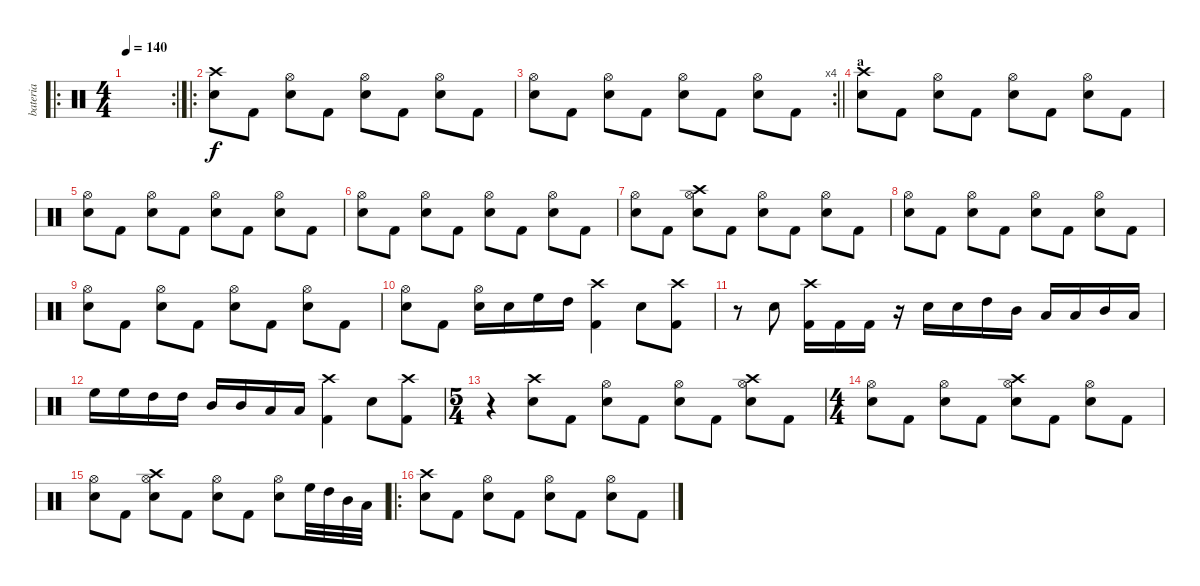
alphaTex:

\track ("bateria" "bateria") {instrument percussion}
\staff {score}
\articulation defaults
\ro
\rc 2
\ts (4 4)
\tempo 140
\clef neutral
\ks c
|
\ro
("Electric Snare (hit)" "Crash high (hit)").8 "Kick (hit) 2".8 ("Electric Snare (hit)" "Hi-Hat (open)").8 "Kick (hit) 2".8 ("Electric Snare (hit)" "Hi-Hat (open)").8 "Kick (hit) 2".8 ("Electric Snare (hit)" "Hi-Hat (open)").8 "Kick (hit) 2".8 |
\rc 4
\barLineRight lightlight
("Electric Snare (hit)" "Hi-Hat (open)").8 "Kick (hit) 2".8 ("Electric Snare (hit)" "Hi-Hat (open)").8 "Kick (hit) 2".8 ("Electric Snare (hit)" "Hi-Hat (open)").8 "Kick (hit) 2".8 ("Electric Snare (hit)" "Hi-Hat (open)").8 "Kick (hit) 2".8 |
\section ("" "a")
("Electric Snare (hit)" "Crash high (hit)").8 "Kick (hit) 2".8 ("Electric Snare (hit)" "Hi-Hat (open)").8 "Kick (hit) 2".8 ("Electric Snare (hit)" "Hi-Hat (open)").8 "Kick (hit) 2".8 ("Electric Snare (hit)" "Hi-Hat (open)").8 "Kick (hit) 2".8 |
("Electric Snare (hit)" "Hi-Hat (open)").8 "Kick (hit) 2".8 ("Electric Snare (hit)" "Hi-Hat (open)").8 "Kick (hit) 2".8 ("Electric Snare (hit)" "Hi-Hat (open)").8 "Kick (hit) 2".8 ("Electric Snare (hit)" "Hi-Hat (open)").8 "Kick (hit) 2".8 |
("Electric Snare (hit)" "Hi-Hat (open)").8 "Kick (hit) 2".8 ("Electric Snare (hit)" "Hi-Hat (open)").8 "Kick (hit) 2".8 ("Electric Snare (hit)" "Hi-Hat (open)").8 "Kick (hit) 2".8 ("Electric Snare (hit)" "Hi-Hat (open)").8 "Kick (hit) 2".8 |
("Electric Snare (hit)" "Hi-Hat (open)").8 "Kick (hit) 2".8 ("Electric Snare (hit)" "Hi-Hat (open)" "Crash high (hit)").8 "Kick (hit) 2".8 ("Electric Snare (hit)" "Hi-Hat (open)").8 "Kick (hit) 2".8 ("Electric Snare (hit)" "Hi-Hat (open)").8 "Kick (hit) 2".8 |
("Electric Snare (hit)" "Hi-Hat (open)").8 "Kick (hit) 2".8 ("Electric Snare (hit)" "Hi-Hat (open)").8 "Kick (hit) 2".8 ("Electric Snare (hit)" "Hi-Hat (open)").8 "Kick (hit) 2".8 ("Electric Snare (hit)" "Hi-Hat (open)").8 "Kick (hit) 2".8 |
("Electric Snare (hit)" "Hi-Hat (open)").8 "Kick (hit) 2".8 ("Electric Snare (hit)" "Hi-Hat (open)").8 "Kick (hit) 2".8 ("Electric Snare (hit)" "Hi-Hat (open)").8 "Kick (hit) 2".8 ("Electric Snare (hit)" "Hi-Hat (open)").8 "Kick (hit) 2".8 |
("Electric Snare (hit)" "Hi-Hat (open)").8 "Kick (hit) 2".8 ("Electric Snare (hit)" "Hi-Hat (open)").16 "Electric Snare (hit)".16 "High Floor Tom (hit)".16 "High Tom (hit)".16 ("Kick (hit) 2" "Crash high (hit)").4 "Electric Snare (hit)".8 ("Kick (hit) 2" "Crash high (hit)").8 |
r.8 "Electric Snare (hit)".8 ("Crash high (hit)" "Kick (hit) 2").16 "Kick (hit) 2".16 "Kick (hit) 2".16 r.16 "Electric Snare (hit)".16 "Electric Snare (hit)".16 "High Tom (hit)".16 "Mid Tom (hit)".16 "Low Tom (hit)".16 "Low Tom (hit)".16 "Mid Tom (hit)".16 "Low Tom (hit)".16 |
"High Floor Tom (hit)".16 "High Floor Tom (hit)".16 "High Tom (hit)".16 "High Tom (hit)".16 "Mid Tom (hit)".16 "Mid Tom (hit)".16 "Low Tom (hit)".16 "Low Tom (hit)".16 ("Kick (hit) 2" "Crash high (hit)").4 "Electric Snare (hit)".8 ("Kick (hit) 2" "Crash high (hit)").8 |
\ts (5 4)
r.4 ("Electric Snare (hit)" "Crash high (hit)").8 "Kick (hit) 2".8 ("Electric Snare (hit)" "Hi-Hat (open)").8 "Kick (hit) 2".8 ("Electric Snare (hit)" "Hi-Hat (open)").8 "Kick (hit) 2".8 ("Electric Snare (hit)" "Hi-Hat (open)" "Crash high (hit)").8 "Kick (hit) 2".8 |
\ts (4 4)
("Electric Snare (hit)" "Hi-Hat (open)").8 "Kick (hit) 2".8 ("Electric Snare (hit)" "Hi-Hat (open)").8 "Kick (hit) 2".8 ("Electric Snare (hit)" "Hi-Hat (open)" "Crash high (hit)").8 "Kick (hit) 2".8 ("Electric Snare (hit)" "Hi-Hat (open)").8 "Kick (hit) 2".8 |
("Electric Snare (hit)" "Hi-Hat (open)").8 "Kick (hit) 2".8 ("Electric Snare (hit)" "Hi-Hat (open)" "Crash high (hit)").8 "Kick (hit) 2".8 ("Electric Snare (hit)" "Hi-Hat (open)").8 "Kick (hit) 2".8 ("Electric Snare (hit)" "Hi-Hat (open)").8 "High Floor Tom (hit)".32 "High Tom (hit)".32 "Mid Tom (hit)".32 "Low Tom (hit)".32 |
\ro
("Electric Snare (hit)" "Crash high (hit)").8 "Kick (hit) 2".8 ("Electric Snare (hit)" "Hi-Hat (open)").8 "Kick (hit) 2".8 ("Electric Snare (hit)" "Hi-Hat (open)").8 "Kick (hit) 2".8 ("Electric Snare (hit)" "Hi-Hat (open)").8 "Kick (hit) 2".8
